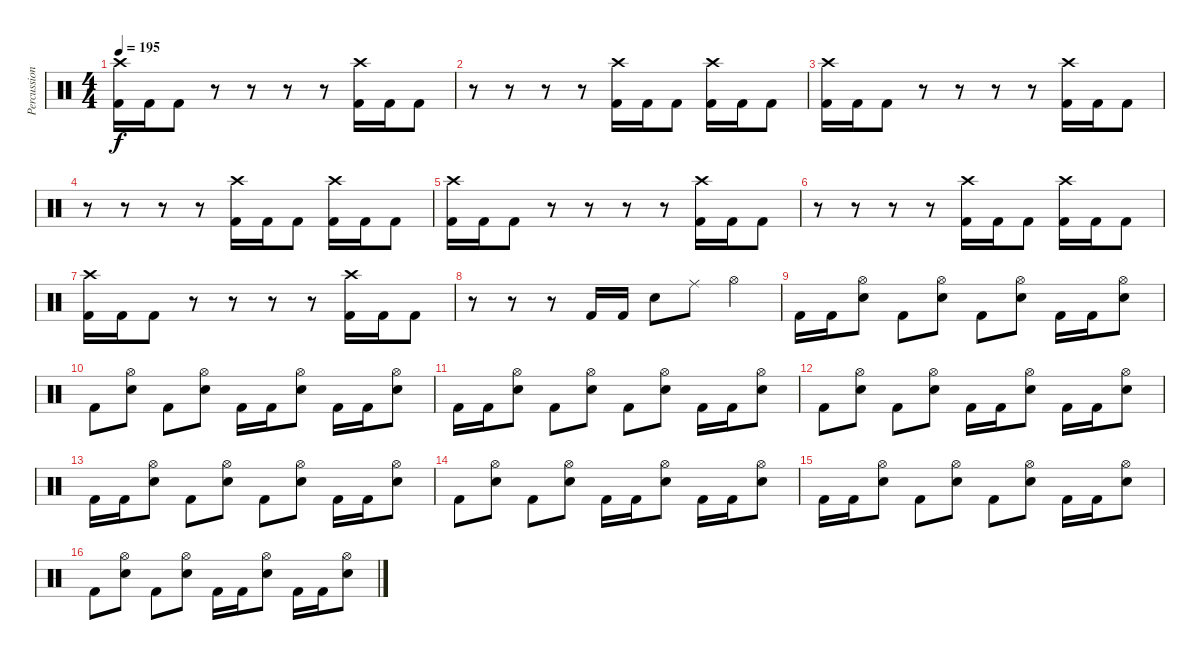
\track ("Percussion" "Percussion") {instrument percussion}
\staff {score}
\articulation defaults
\ts (4 4)
\tempo 195
\clef neutral
\ks c
("Crash high (hit)" "Kick (hit) 2").16{dy f} "Kick (hit) 2".16 "Kick (hit) 2".8 r.8 r.8 r.8 r.8 ("Crash high (hit)" "Kick (hit) 2").16 "Kick (hit) 2".16 "Kick (hit) 2".8 |
r.8 r.8 r.8 r.8 ("Crash high (hit)" "Kick (hit) 2").16 "Kick (hit) 2".16 "Kick (hit) 2".8 ("Crash high (hit)" "Kick (hit) 2").16 "Kick (hit) 2".16 "Kick (hit) 2".8 |
("Crash high (hit)" "Kick (hit) 2").16 "Kick (hit) 2".16 "Kick (hit) 2".8 r.8 r.8 r.8 r.8 ("Crash high (hit)" "Kick (hit) 2").16 "Kick (hit) 2".16 "Kick (hit) 2".8 |
r.8 r.8 r.8 r.8 ("Crash high (hit)" "Kick (hit) 2").16 "Kick (hit) 2".16 "Kick (hit) 2".8 ("Crash high (hit)" "Kick (hit) 2").16 "Kick (hit) 2".16 "Kick (hit) 2".8 |
("Crash high (hit)" "Kick (hit) 2").16 "Kick (hit) 2".16 "Kick (hit) 2".8 r.8 r.8 r.8 r.8 ("Crash high (hit)" "Kick (hit) 2").16 "Kick (hit) 2".16 "Kick (hit) 2".8 |
r.8 r.8 r.8 r.8 ("Crash high (hit)" "Kick (hit) 2").16 "Kick (hit) 2".16 "Kick (hit) 2".8 ("Crash high (hit)" "Kick (hit) 2").16 "Kick (hit) 2".16 "Kick (hit) 2".8 |
("Crash high (hit)" "Kick (hit) 2").16 "Kick (hit) 2".16 "Kick (hit) 2".8 r.8 r.8 r.8 r.8 ("Crash high (hit)" "Kick (hit) 2").16 "Kick (hit) 2".16 "Kick (hit) 2".8 |
r.8 r.8 r.8 "Kick (hit) 2".16 "Kick (hit) 2".16 "Electric Snare (hit)".8 "Ride (middle)".8 "Hi-Hat (open)".4 |
"Kick (hit) 2".16 "Kick (hit) 2".16 ("Hi-Hat (open)" "Electric Snare (hit)").8 "Kick (hit) 2".8 ("Hi-Hat (open)" "Electric Snare (hit)").8 "Kick (hit) 2".8 ("Hi-Hat (open)" "Electric Snare (hit)").8 "Kick (hit) 2".16 "Kick (hit) 2".16 ("Hi-Hat (open)" "Electric Snare (hit)").8 |
"Kick (hit) 2".8 ("Hi-Hat (open)" "Electric Snare (hit)").8 "Kick (hit) 2".8 ("Hi-Hat (open)" "Electric Snare (hit)").8 "Kick (hit) 2".16 "Kick (hit) 2".16 ("Hi-Hat (open)" "Electric Snare (hit)").8 "Kick (hit) 2".16 "Kick (hit) 2".16 ("Hi-Hat (open)" "Electric Snare (hit)").8 |
"Kick (hit) 2".16 "Kick (hit) 2".16 ("Hi-Hat (open)" "Electric Snare (hit)").8 "Kick (hit) 2".8 ("Hi-Hat (open)" "Electric Snare (hit)").8 "Kick (hit) 2".8 ("Hi-Hat (open)" "Electric Snare (hit)").8 "Kick (hit) 2".16 "Kick (hit) 2".16 ("Hi-Hat (open)" "Electric Snare (hit)").8 |
"Kick (hit) 2".8 ("Hi-Hat (open)" "Electric Snare (hit)").8 "Kick (hit) 2".8 ("Hi-Hat (open)" "Electric Snare (hit)").8 "Kick (hit) 2".16 "Kick (hit) 2".16 ("Hi-Hat (open)" "Electric Snare (hit)").8 "Kick (hit) 2".16 "Kick (hit) 2".16 ("Hi-Hat (open)" "Electric Snare (hit)").8 |
"Kick (hit) 2".16 "Kick (hit) 2".16 ("Hi-Hat (open)" "Electric Snare (hit)").8 "Kick (hit) 2".8 ("Hi-Hat (open)" "Electric Snare (hit)").8 "Kick (hit) 2".8 ("Hi-Hat (open)" "Electric Snare (hit)").8 "Kick (hit) 2".16 "Kick (hit) 2".16 ("Hi-Hat (open)" "Electric Snare (hit)").8 |
"Kick (hit) 2".8 ("Hi-Hat (open)" "Electric Snare (hit)").8 "Kick (hit) 2".8 ("Hi-Hat (open)" "Electric Snare (hit)").8 "Kick (hit) 2".16 "Kick (hit) 2".16 ("Hi-Hat (open)" "Electric Snare (hit)").8 "Kick (hit) 2".16 "Kick (hit) 2".16 ("Hi-Hat (open)" "Electric Snare (hit)").8 |
"Kick (hit) 2".16 "Kick (hit) 2".16 ("Hi-Hat (open)" "Electric Snare (hit)").8 "Kick (hit) 2".8 ("Hi-Hat (open)" "Electric Snare (hit)").8 "Kick (hit) 2".8 ("Hi-Hat (open)" "Electric Snare (hit)").8 "Kick (hit) 2".16 "Kick (hit) 2".16 ("Hi-Hat (open)" "Electric Snare (hit)").8 |
"Kick (hit) 2".8 ("Hi-Hat (open)" "Electric Snare (hit)").8 "Kick (hit) 2".8 ("Hi-Hat (open)" "Electric Snare (hit)").8 "Kick (hit) 2".16 "Kick (hit) 2".16 ("Hi-Hat (open)" "Electric Snare (hit)").8 "Kick (hit) 2".16 "Kick (hit) 2".16 ("Hi-Hat (open)" "Electric Snare (hit)").8
